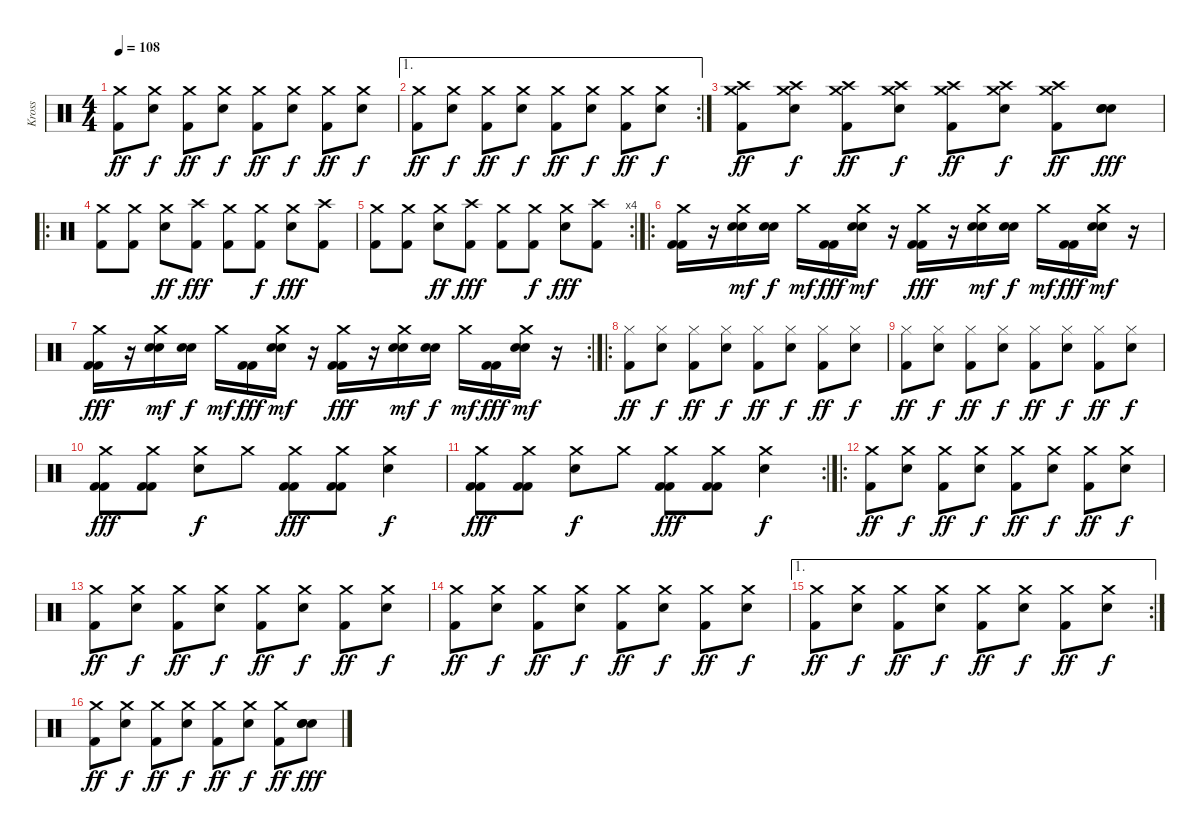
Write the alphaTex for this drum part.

\track ("Kross" "Kross") {instrument percussion}
\staff {score}
\articulation defaults
\ts (4 4)
\tempo 108
\clef neutral
\ks c
("Kick (hit) 2" "Crash medium (hit)").8{dy ff} ("Crash medium (hit)" "Snare (hit) 2").8{dy f} ("Kick (hit) 2" "Crash medium (hit)").8{dy ff} ("Crash medium (hit)" "Snare (hit) 2").8{dy f} ("Kick (hit) 2" "Crash medium (hit)").8{dy ff} ("Crash medium (hit)" "Snare (hit) 2").8{dy f} ("Kick (hit) 2" "Crash medium (hit)").8{dy ff} ("Crash medium (hit)" "Snare (hit) 2").8{dy f} |
\ae 1
\rc 2
("Kick (hit) 2" "Crash medium (hit)").8{dy ff} ("Crash medium (hit)" "Snare (hit) 2").8{dy f} ("Kick (hit) 2" "Crash medium (hit)").8{dy ff} ("Crash medium (hit)" "Snare (hit) 2").8{dy f} ("Kick (hit) 2" "Crash medium (hit)").8{dy ff} ("Crash medium (hit)" "Snare (hit) 2").8{dy f} ("Kick (hit) 2" "Crash medium (hit)").8{dy ff} ("Crash medium (hit)" "Snare (hit) 2").8{dy f} |
("Kick (hit) 2" "Crash high (hit)" "Crash medium (hit)").8{dy ff} ("Crash high (hit)" "Crash medium (hit)" "Snare (hit) 2").8{dy f} ("Kick (hit) 2" "Crash high (hit)" "Crash medium (hit)").8{dy ff} ("Crash high (hit)" "Crash medium (hit)" "Snare (hit) 2").8{dy f} ("Kick (hit) 2" "Crash high (hit)" "Crash medium (hit)").8{dy ff} ("Crash high (hit)" "Crash medium (hit)" "Snare (hit) 2").8{dy f} ("Kick (hit) 2" "Crash high (hit)" "Crash medium (hit)").8{dy ff} ("Snare (hit) 2" "Snare (hit) 2" "Snare (hit) 2").8{dy fff} |
\ro
("Crash medium (hit)" "Kick (hit) 2").8 ("Crash medium (hit)" "Kick (hit) 2").8 ("Crash medium (hit)" "Electric Snare (hit)").8{dy ff} ("Crash high (hit)" "Kick (hit) 2").8{dy fff} ("Crash medium (hit)" "Kick (hit) 2").8 ("Crash medium (hit)" "Kick (hit) 2").8{dy f} ("Crash medium (hit)" "Electric Snare (hit)").8{dy fff} ("Crash high (hit)" "Kick (hit) 2").8 |
\rc 4
("Crash medium (hit)" "Kick (hit) 2").8 ("Crash medium (hit)" "Kick (hit) 2").8 ("Crash medium (hit)" "Electric Snare (hit)").8{dy ff} ("Crash high (hit)" "Kick (hit) 2").8{dy fff} ("Crash medium (hit)" "Kick (hit) 2").8 ("Crash medium (hit)" "Kick (hit) 2").8{dy f} ("Crash medium (hit)" "Electric Snare (hit)").8{dy fff} ("Crash high (hit)" "Kick (hit) 2").8 |
\ro
("Crash medium (hit)" "Kick (hit) 2" "Kick (hit) 2").16 r.16 ("Crash medium (hit)" "Snare (hit) 2" "Snare (hit) 2").16{dy mf} ("Snare (hit) 2" "Snare (hit) 2").16{dy f} "Crash medium (hit)".16{dy mf} ("Kick (hit) 2" "Kick (hit) 2").16{dy fff} ("Crash medium (hit)" "Snare (hit) 2" "Snare (hit) 2").16{dy mf} r.16 ("Crash medium (hit)" "Kick (hit) 2" "Kick (hit) 2").16{dy fff} r.16 ("Crash medium (hit)" "Snare (hit) 2" "Snare (hit) 2").16{dy mf} ("Snare (hit) 2" "Snare (hit) 2").16{dy f} "Crash medium (hit)".16{dy mf} ("Kick (hit) 2" "Kick (hit) 2").16{dy fff} ("Crash medium (hit)" "Snare (hit) 2" "Snare (hit) 2").16{dy mf} r.16 |
\rc 2
("Crash medium (hit)" "Kick (hit) 2" "Kick (hit) 2").16{dy fff} r.16 ("Crash medium (hit)" "Snare (hit) 2" "Snare (hit) 2").16{dy mf} ("Snare (hit) 2" "Snare (hit) 2").16{dy f} "Crash medium (hit)".16{dy mf} ("Kick (hit) 2" "Kick (hit) 2").16{dy fff} ("Crash medium (hit)" "Snare (hit) 2" "Snare (hit) 2").16{dy mf} r.16 ("Crash medium (hit)" "Kick (hit) 2" "Kick (hit) 2").16{dy fff} r.16 ("Crash medium (hit)" "Snare (hit) 2" "Snare (hit) 2").16{dy mf} ("Snare (hit) 2" "Snare (hit) 2").16{dy f} "Crash medium (hit)".16{dy mf} ("Kick (hit) 2" "Kick (hit) 2").16{dy fff} ("Crash medium (hit)" "Snare (hit) 2" "Snare (hit) 2").16{dy mf} r.16 |
\ro
("Kick (hit) 2" "Hi-Hat (closed)").8{dy ff} ("Hi-Hat (closed)" "Snare (hit) 2").8{dy f} ("Kick (hit) 2" "Hi-Hat (closed)").8{dy ff} ("Hi-Hat (closed)" "Snare (hit) 2").8{dy f} ("Kick (hit) 2" "Hi-Hat (closed)").8{dy ff} ("Hi-Hat (closed)" "Snare (hit) 2").8{dy f} ("Kick (hit) 2" "Hi-Hat (closed)").8{dy ff} ("Hi-Hat (closed)" "Snare (hit) 2").8{dy f} |
("Kick (hit) 2" "Hi-Hat (closed)").8{dy ff} ("Hi-Hat (closed)" "Snare (hit) 2").8{dy f} ("Kick (hit) 2" "Hi-Hat (closed)").8{dy ff} ("Hi-Hat (closed)" "Snare (hit) 2").8{dy f} ("Kick (hit) 2" "Hi-Hat (closed)").8{dy ff} ("Hi-Hat (closed)" "Snare (hit) 2").8{dy f} ("Kick (hit) 2" "Hi-Hat (closed)").8{dy ff} ("Hi-Hat (closed)" "Snare (hit) 2").8{dy f} |
("Crash medium (hit)" "Kick (hit) 2" "Kick (hit) 2").8{dy fff} ("Crash medium (hit)" "Kick (hit) 2" "Kick (hit) 2").8 ("Crash medium (hit)" "Snare (hit) 2").8{dy f} "Crash medium (hit)".8 ("Crash medium (hit)" "Kick (hit) 2" "Kick (hit) 2").8{dy fff} ("Crash medium (hit)" "Kick (hit) 2" "Kick (hit) 2").8 ("Crash medium (hit)" "Snare (hit) 2").4{dy f} |
\rc 2
("Crash medium (hit)" "Kick (hit) 2" "Kick (hit) 2").8{dy fff} ("Crash medium (hit)" "Kick (hit) 2" "Kick (hit) 2").8 ("Crash medium (hit)" "Snare (hit) 2").8{dy f} "Crash medium (hit)".8 ("Crash medium (hit)" "Kick (hit) 2" "Kick (hit) 2").8{dy fff} ("Crash medium (hit)" "Kick (hit) 2" "Kick (hit) 2").8 ("Crash medium (hit)" "Snare (hit) 2").4{dy f} |
\ro
("Kick (hit) 2" "Crash medium (hit)").8{dy ff} ("Crash medium (hit)" "Snare (hit) 2").8{dy f} ("Kick (hit) 2" "Crash medium (hit)").8{dy ff} ("Crash medium (hit)" "Snare (hit) 2").8{dy f} ("Kick (hit) 2" "Crash medium (hit)").8{dy ff} ("Crash medium (hit)" "Snare (hit) 2").8{dy f} ("Kick (hit) 2" "Crash medium (hit)").8{dy ff} ("Crash medium (hit)" "Snare (hit) 2").8{dy f} |
("Kick (hit) 2" "Crash medium (hit)").8{dy ff} ("Crash medium (hit)" "Snare (hit) 2").8{dy f} ("Kick (hit) 2" "Crash medium (hit)").8{dy ff} ("Crash medium (hit)" "Snare (hit) 2").8{dy f} ("Kick (hit) 2" "Crash medium (hit)").8{dy ff} ("Crash medium (hit)" "Snare (hit) 2").8{dy f} ("Kick (hit) 2" "Crash medium (hit)").8{dy ff} ("Crash medium (hit)" "Snare (hit) 2").8{dy f} |
("Kick (hit) 2" "Crash medium (hit)").8{dy ff} ("Crash medium (hit)" "Snare (hit) 2").8{dy f} ("Kick (hit) 2" "Crash medium (hit)").8{dy ff} ("Crash medium (hit)" "Snare (hit) 2").8{dy f} ("Kick (hit) 2" "Crash medium (hit)").8{dy ff} ("Crash medium (hit)" "Snare (hit) 2").8{dy f} ("Kick (hit) 2" "Crash medium (hit)").8{dy ff} ("Crash medium (hit)" "Snare (hit) 2").8{dy f} |
\ae 1
\rc 2
("Kick (hit) 2" "Crash medium (hit)").8{dy ff} ("Crash medium (hit)" "Snare (hit) 2").8{dy f} ("Kick (hit) 2" "Crash medium (hit)").8{dy ff} ("Crash medium (hit)" "Snare (hit) 2").8{dy f} ("Kick (hit) 2" "Crash medium (hit)").8{dy ff} ("Crash medium (hit)" "Snare (hit) 2").8{dy f} ("Kick (hit) 2" "Crash medium (hit)").8{dy ff} ("Crash medium (hit)" "Snare (hit) 2").8{dy f} |
("Kick (hit) 2" "Crash medium (hit)").8{dy ff} ("Crash medium (hit)" "Snare (hit) 2").8{dy f} ("Kick (hit) 2" "Crash medium (hit)").8{dy ff} ("Crash medium (hit)" "Snare (hit) 2").8{dy f} ("Kick (hit) 2" "Crash medium (hit)").8{dy ff} ("Crash medium (hit)" "Snare (hit) 2").8{dy f} ("Kick (hit) 2" "Crash medium (hit)").8{dy ff} ("Snare (hit) 2" "Snare (hit) 2" "Snare (hit) 2").8{dy fff}
